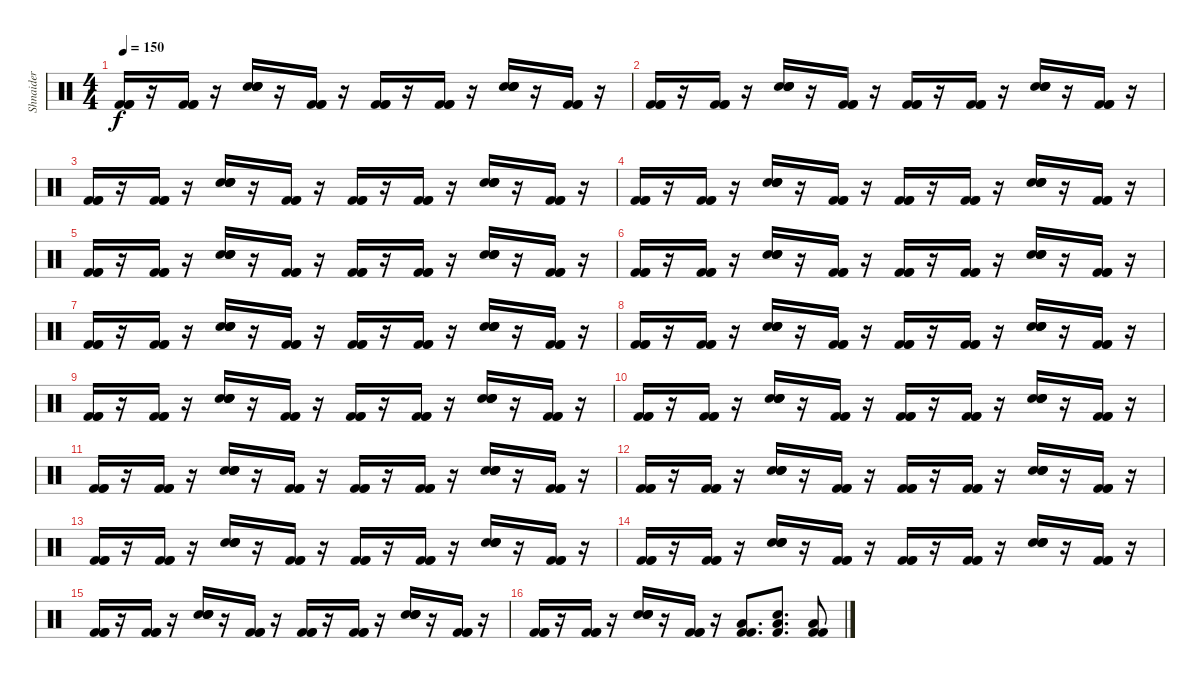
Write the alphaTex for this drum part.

\track ("Shnaider" "Shnaider") {instrument percussion}
\staff {score}
\articulation defaults
\ts (4 4)
\tempo 150
\clef neutral
\ks c
("Kick (hit) 2" "Kick (hit) 2" "Kick (hit) 2").16{dy f} r.16 ("Kick (hit) 2" "Kick (hit) 2" "Kick (hit) 2").16 r.16 ("Electric Snare (hit)" "Electric Snare (hit)" "Electric Snare (hit)" "Electric Snare (hit)").16 r.16 ("Kick (hit) 2" "Kick (hit) 2" "Kick (hit) 2").16 r.16 ("Kick (hit) 2" "Kick (hit) 2" "Kick (hit) 2").16 r.16 ("Kick (hit) 2" "Kick (hit) 2" "Kick (hit) 2").16 r.16 ("Electric Snare (hit)" "Electric Snare (hit)" "Electric Snare (hit)" "Electric Snare (hit)").16 r.16 ("Kick (hit) 2" "Kick (hit) 2" "Kick (hit) 2").16 r.16 |
("Kick (hit) 2" "Kick (hit) 2" "Kick (hit) 2").16 r.16 ("Kick (hit) 2" "Kick (hit) 2" "Kick (hit) 2").16 r.16 ("Electric Snare (hit)" "Electric Snare (hit)" "Electric Snare (hit)" "Electric Snare (hit)").16 r.16 ("Kick (hit) 2" "Kick (hit) 2" "Kick (hit) 2").16 r.16 ("Kick (hit) 2" "Kick (hit) 2" "Kick (hit) 2").16 r.16 ("Kick (hit) 2" "Kick (hit) 2" "Kick (hit) 2").16 r.16 ("Electric Snare (hit)" "Electric Snare (hit)" "Electric Snare (hit)" "Electric Snare (hit)").16 r.16 ("Kick (hit) 2" "Kick (hit) 2" "Kick (hit) 2").16 r.16 |
("Kick (hit) 2" "Kick (hit) 2" "Kick (hit) 2").16 r.16 ("Kick (hit) 2" "Kick (hit) 2" "Kick (hit) 2").16 r.16 ("Electric Snare (hit)" "Electric Snare (hit)" "Electric Snare (hit)" "Electric Snare (hit)").16 r.16 ("Kick (hit) 2" "Kick (hit) 2" "Kick (hit) 2").16 r.16 ("Kick (hit) 2" "Kick (hit) 2" "Kick (hit) 2").16 r.16 ("Kick (hit) 2" "Kick (hit) 2" "Kick (hit) 2").16 r.16 ("Electric Snare (hit)" "Electric Snare (hit)" "Electric Snare (hit)" "Electric Snare (hit)").16 r.16 ("Kick (hit) 2" "Kick (hit) 2" "Kick (hit) 2").16 r.16 |
("Kick (hit) 2" "Kick (hit) 2" "Kick (hit) 2").16 r.16 ("Kick (hit) 2" "Kick (hit) 2" "Kick (hit) 2").16 r.16 ("Electric Snare (hit)" "Electric Snare (hit)" "Electric Snare (hit)" "Electric Snare (hit)").16 r.16 ("Kick (hit) 2" "Kick (hit) 2" "Kick (hit) 2").16 r.16 ("Kick (hit) 2" "Kick (hit) 2" "Kick (hit) 2").16 r.16 ("Kick (hit) 2" "Kick (hit) 2" "Kick (hit) 2").16 r.16 ("Electric Snare (hit)" "Electric Snare (hit)" "Electric Snare (hit)" "Electric Snare (hit)").16 r.16 ("Kick (hit) 2" "Kick (hit) 2" "Kick (hit) 2").16 r.16 |
("Kick (hit) 2" "Kick (hit) 2" "Kick (hit) 2").16 r.16 ("Kick (hit) 2" "Kick (hit) 2" "Kick (hit) 2").16 r.16 ("Electric Snare (hit)" "Electric Snare (hit)" "Electric Snare (hit)" "Electric Snare (hit)").16 r.16 ("Kick (hit) 2" "Kick (hit) 2" "Kick (hit) 2").16 r.16 ("Kick (hit) 2" "Kick (hit) 2" "Kick (hit) 2").16 r.16 ("Kick (hit) 2" "Kick (hit) 2" "Kick (hit) 2").16 r.16 ("Electric Snare (hit)" "Electric Snare (hit)" "Electric Snare (hit)" "Electric Snare (hit)").16 r.16 ("Kick (hit) 2" "Kick (hit) 2" "Kick (hit) 2").16 r.16 |
("Kick (hit) 2" "Kick (hit) 2" "Kick (hit) 2").16 r.16 ("Kick (hit) 2" "Kick (hit) 2" "Kick (hit) 2").16 r.16 ("Electric Snare (hit)" "Electric Snare (hit)" "Electric Snare (hit)" "Electric Snare (hit)").16 r.16 ("Kick (hit) 2" "Kick (hit) 2" "Kick (hit) 2").16 r.16 ("Kick (hit) 2" "Kick (hit) 2" "Kick (hit) 2").16 r.16 ("Kick (hit) 2" "Kick (hit) 2" "Kick (hit) 2").16 r.16 ("Electric Snare (hit)" "Electric Snare (hit)" "Electric Snare (hit)" "Electric Snare (hit)").16 r.16 ("Kick (hit) 2" "Kick (hit) 2" "Kick (hit) 2").16 r.16 |
("Kick (hit) 2" "Kick (hit) 2" "Kick (hit) 2").16 r.16 ("Kick (hit) 2" "Kick (hit) 2" "Kick (hit) 2").16 r.16 ("Electric Snare (hit)" "Electric Snare (hit)" "Electric Snare (hit)" "Electric Snare (hit)").16 r.16 ("Kick (hit) 2" "Kick (hit) 2" "Kick (hit) 2").16 r.16 ("Kick (hit) 2" "Kick (hit) 2" "Kick (hit) 2").16 r.16 ("Kick (hit) 2" "Kick (hit) 2" "Kick (hit) 2").16 r.16 ("Electric Snare (hit)" "Electric Snare (hit)" "Electric Snare (hit)" "Electric Snare (hit)").16 r.16 ("Kick (hit) 2" "Kick (hit) 2" "Kick (hit) 2").16 r.16 |
("Kick (hit) 2" "Kick (hit) 2" "Kick (hit) 2").16 r.16 ("Kick (hit) 2" "Kick (hit) 2" "Kick (hit) 2").16 r.16 ("Electric Snare (hit)" "Electric Snare (hit)" "Electric Snare (hit)" "Electric Snare (hit)").16 r.16 ("Kick (hit) 2" "Kick (hit) 2" "Kick (hit) 2").16 r.16 ("Kick (hit) 2" "Kick (hit) 2" "Kick (hit) 2").16 r.16 ("Kick (hit) 2" "Kick (hit) 2" "Kick (hit) 2").16 r.16 ("Electric Snare (hit)" "Electric Snare (hit)" "Electric Snare (hit)" "Electric Snare (hit)").16 r.16 ("Kick (hit) 2" "Kick (hit) 2" "Kick (hit) 2").16 r.16 |
("Kick (hit) 2" "Kick (hit) 2" "Kick (hit) 2").16 r.16 ("Kick (hit) 2" "Kick (hit) 2" "Kick (hit) 2").16 r.16 ("Electric Snare (hit)" "Electric Snare (hit)" "Electric Snare (hit)" "Electric Snare (hit)").16 r.16 ("Kick (hit) 2" "Kick (hit) 2" "Kick (hit) 2").16 r.16 ("Kick (hit) 2" "Kick (hit) 2" "Kick (hit) 2").16 r.16 ("Kick (hit) 2" "Kick (hit) 2" "Kick (hit) 2").16 r.16 ("Electric Snare (hit)" "Electric Snare (hit)" "Electric Snare (hit)" "Electric Snare (hit)").16 r.16 ("Kick (hit) 2" "Kick (hit) 2" "Kick (hit) 2").16 r.16 |
("Kick (hit) 2" "Kick (hit) 2" "Kick (hit) 2").16 r.16 ("Kick (hit) 2" "Kick (hit) 2" "Kick (hit) 2").16 r.16 ("Electric Snare (hit)" "Electric Snare (hit)" "Electric Snare (hit)" "Electric Snare (hit)").16 r.16 ("Kick (hit) 2" "Kick (hit) 2" "Kick (hit) 2").16 r.16 ("Kick (hit) 2" "Kick (hit) 2" "Kick (hit) 2").16 r.16 ("Kick (hit) 2" "Kick (hit) 2" "Kick (hit) 2").16 r.16 ("Electric Snare (hit)" "Electric Snare (hit)" "Electric Snare (hit)" "Electric Snare (hit)").16 r.16 ("Kick (hit) 2" "Kick (hit) 2" "Kick (hit) 2").16 r.16 |
("Kick (hit) 2" "Kick (hit) 2" "Kick (hit) 2").16 r.16 ("Kick (hit) 2" "Kick (hit) 2" "Kick (hit) 2").16 r.16 ("Electric Snare (hit)" "Electric Snare (hit)" "Electric Snare (hit)" "Electric Snare (hit)").16 r.16 ("Kick (hit) 2" "Kick (hit) 2" "Kick (hit) 2").16 r.16 ("Kick (hit) 2" "Kick (hit) 2" "Kick (hit) 2").16 r.16 ("Kick (hit) 2" "Kick (hit) 2" "Kick (hit) 2").16 r.16 ("Electric Snare (hit)" "Electric Snare (hit)" "Electric Snare (hit)" "Electric Snare (hit)").16 r.16 ("Kick (hit) 2" "Kick (hit) 2" "Kick (hit) 2").16 r.16 |
("Kick (hit) 2" "Kick (hit) 2" "Kick (hit) 2").16 r.16 ("Kick (hit) 2" "Kick (hit) 2" "Kick (hit) 2").16 r.16 ("Electric Snare (hit)" "Electric Snare (hit)" "Electric Snare (hit)" "Electric Snare (hit)").16 r.16 ("Kick (hit) 2" "Kick (hit) 2" "Kick (hit) 2").16 r.16 ("Kick (hit) 2" "Kick (hit) 2" "Kick (hit) 2").16 r.16 ("Kick (hit) 2" "Kick (hit) 2" "Kick (hit) 2").16 r.16 ("Electric Snare (hit)" "Electric Snare (hit)" "Electric Snare (hit)" "Electric Snare (hit)").16 r.16 ("Kick (hit) 2" "Kick (hit) 2" "Kick (hit) 2").16 r.16 |
("Kick (hit) 2" "Kick (hit) 2" "Kick (hit) 2").16 r.16 ("Kick (hit) 2" "Kick (hit) 2" "Kick (hit) 2").16 r.16 ("Electric Snare (hit)" "Electric Snare (hit)" "Electric Snare (hit)" "Electric Snare (hit)").16 r.16 ("Kick (hit) 2" "Kick (hit) 2" "Kick (hit) 2").16 r.16 ("Kick (hit) 2" "Kick (hit) 2" "Kick (hit) 2").16 r.16 ("Kick (hit) 2" "Kick (hit) 2" "Kick (hit) 2").16 r.16 ("Electric Snare (hit)" "Electric Snare (hit)" "Electric Snare (hit)" "Electric Snare (hit)").16 r.16 ("Kick (hit) 2" "Kick (hit) 2" "Kick (hit) 2").16 r.16 |
("Kick (hit) 2" "Kick (hit) 2" "Kick (hit) 2").16 r.16 ("Kick (hit) 2" "Kick (hit) 2" "Kick (hit) 2").16 r.16 ("Electric Snare (hit)" "Electric Snare (hit)" "Electric Snare (hit)" "Electric Snare (hit)").16 r.16 ("Kick (hit) 2" "Kick (hit) 2" "Kick (hit) 2").16 r.16 ("Kick (hit) 2" "Kick (hit) 2" "Kick (hit) 2").16 r.16 ("Kick (hit) 2" "Kick (hit) 2" "Kick (hit) 2").16 r.16 ("Electric Snare (hit)" "Electric Snare (hit)" "Electric Snare (hit)" "Electric Snare (hit)").16 r.16 ("Kick (hit) 2" "Kick (hit) 2" "Kick (hit) 2").16 r.16 |
("Kick (hit) 2" "Kick (hit) 2" "Kick (hit) 2").16 r.16 ("Kick (hit) 2" "Kick (hit) 2" "Kick (hit) 2").16 r.16 ("Electric Snare (hit)" "Electric Snare (hit)" "Electric Snare (hit)" "Electric Snare (hit)").16 r.16 ("Kick (hit) 2" "Kick (hit) 2" "Kick (hit) 2").16 r.16 ("Kick (hit) 2" "Kick (hit) 2" "Kick (hit) 2").16 r.16 ("Kick (hit) 2" "Kick (hit) 2" "Kick (hit) 2").16 r.16 ("Electric Snare (hit)" "Electric Snare (hit)" "Electric Snare (hit)" "Electric Snare (hit)").16 r.16 ("Kick (hit) 2" "Kick (hit) 2" "Kick (hit) 2").16 r.16 |
("Kick (hit) 2" "Kick (hit) 2" "Kick (hit) 2").16 r.16 ("Kick (hit) 2" "Kick (hit) 2" "Kick (hit) 2").16 r.16 ("Electric Snare (hit)" "Electric Snare (hit)" "Electric Snare (hit)" "Electric Snare (hit)").16 r.16 ("Kick (hit) 2" "Kick (hit) 2" "Kick (hit) 2").16 r.16 ("Kick (hit) 2" "Kick (hit) 2" "Low Floor Tom (hit)").8{d} ("Kick (hit) 2" "Electric Snare (hit)" "Low Floor Tom (hit)").8{d} ("Kick (hit) 2" "Kick (hit) 2" "Low Floor Tom (hit)").8
